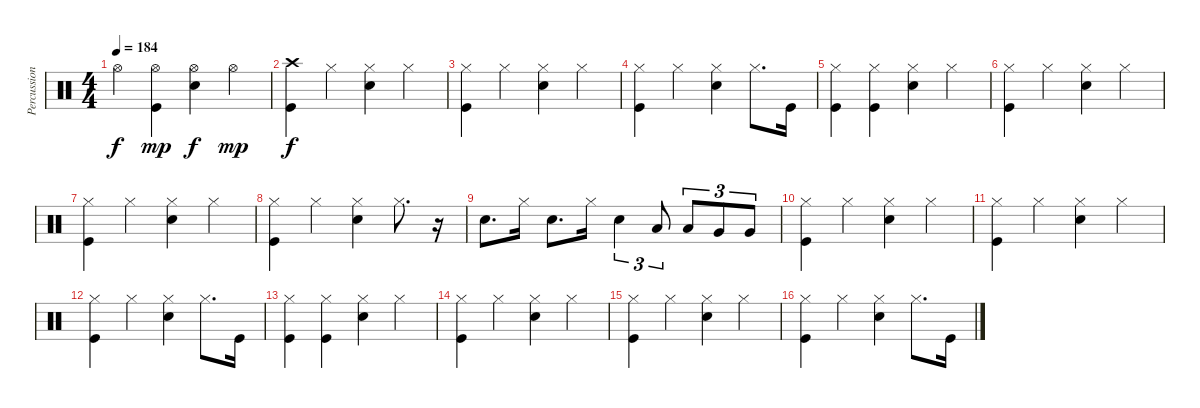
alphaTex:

\track ("Percussion" "Percussion") {instrument percussion}
\staff {score}
\articulation defaults
\ts (4 4)
\tempo 184
\clef neutral
\ks c "Hi-Hat (open)".4{dy f}
("Hi-Hat (open)" "Kick (hit)").4{dy mp} ("Hi-Hat (open)" "Electric Snare (hit)").4{dy f} "Hi-Hat (open)".4{dy mp} |
("Crash high (hit)" "Kick (hit)").4{dy f} "Hi-Hat (closed)".4 ("Hi-Hat (closed)" "Electric Snare (hit)").4 "Hi-Hat (closed)".4 |
("Hi-Hat (closed)" "Kick (hit)").4 "Hi-Hat (closed)".4 ("Hi-Hat (closed)" "Electric Snare (hit)").4 "Hi-Hat (closed)".4 |
("Hi-Hat (closed)" "Kick (hit)").4 "Hi-Hat (closed)".4 ("Hi-Hat (closed)" "Electric Snare (hit)").4 "Hi-Hat (closed)".8{d} "Kick (hit)".16 |
("Hi-Hat (closed)" "Kick (hit)").4 ("Hi-Hat (closed)" "Kick (hit)").4 ("Hi-Hat (closed)" "Electric Snare (hit)").4 "Hi-Hat (closed)".4 |
("Hi-Hat (closed)" "Kick (hit)").4 "Hi-Hat (closed)".4 ("Hi-Hat (closed)" "Electric Snare (hit)").4 "Hi-Hat (closed)".4 |
("Hi-Hat (closed)" "Kick (hit)").4 "Hi-Hat (closed)".4 ("Hi-Hat (closed)" "Electric Snare (hit)").4 "Hi-Hat (closed)".4 |
("Hi-Hat (closed)" "Kick (hit)").4 "Hi-Hat (closed)".4 ("Hi-Hat (closed)" "Electric Snare (hit)").4 "Hi-Hat (closed)".8{d} r.16 |
"Electric Snare (hit)".8{d} "Hi-Hat (closed)".16 "Electric Snare (hit)".8{d} "Hi-Hat (closed)".16 "Electric Snare (hit)".4{tu (3 2)} "Low Tom (hit)".8{tu (3 2)} "Low Tom (hit)".8{tu (3 2)} "Very Low Tom (hit)".8{tu (3 2)} "Very Low Tom (hit)".8{tu (3 2)} |
("Hi-Hat (closed)" "Kick (hit)").4 "Hi-Hat (closed)".4 ("Hi-Hat (closed)" "Electric Snare (hit)").4 "Hi-Hat (closed)".4 |
("Hi-Hat (closed)" "Kick (hit)").4 "Hi-Hat (closed)".4 ("Hi-Hat (closed)" "Electric Snare (hit)").4 "Hi-Hat (closed)".4 |
("Hi-Hat (closed)" "Kick (hit)").4 "Hi-Hat (closed)".4 ("Hi-Hat (closed)" "Electric Snare (hit)").4 "Hi-Hat (closed)".8{d} "Kick (hit)".16 |
("Hi-Hat (closed)" "Kick (hit)").4 ("Hi-Hat (closed)" "Kick (hit)").4 ("Hi-Hat (closed)" "Electric Snare (hit)").4 "Hi-Hat (closed)".4 |
("Hi-Hat (closed)" "Kick (hit)").4 "Hi-Hat (closed)".4 ("Hi-Hat (closed)" "Electric Snare (hit)").4 "Hi-Hat (closed)".4 |
("Hi-Hat (closed)" "Kick (hit)").4 "Hi-Hat (closed)".4 ("Hi-Hat (closed)" "Electric Snare (hit)").4 "Hi-Hat (closed)".4 |
("Hi-Hat (closed)" "Kick (hit)").4 "Hi-Hat (closed)".4 ("Hi-Hat (closed)" "Electric Snare (hit)").4 "Hi-Hat (closed)".8{d} "Kick (hit)".16
